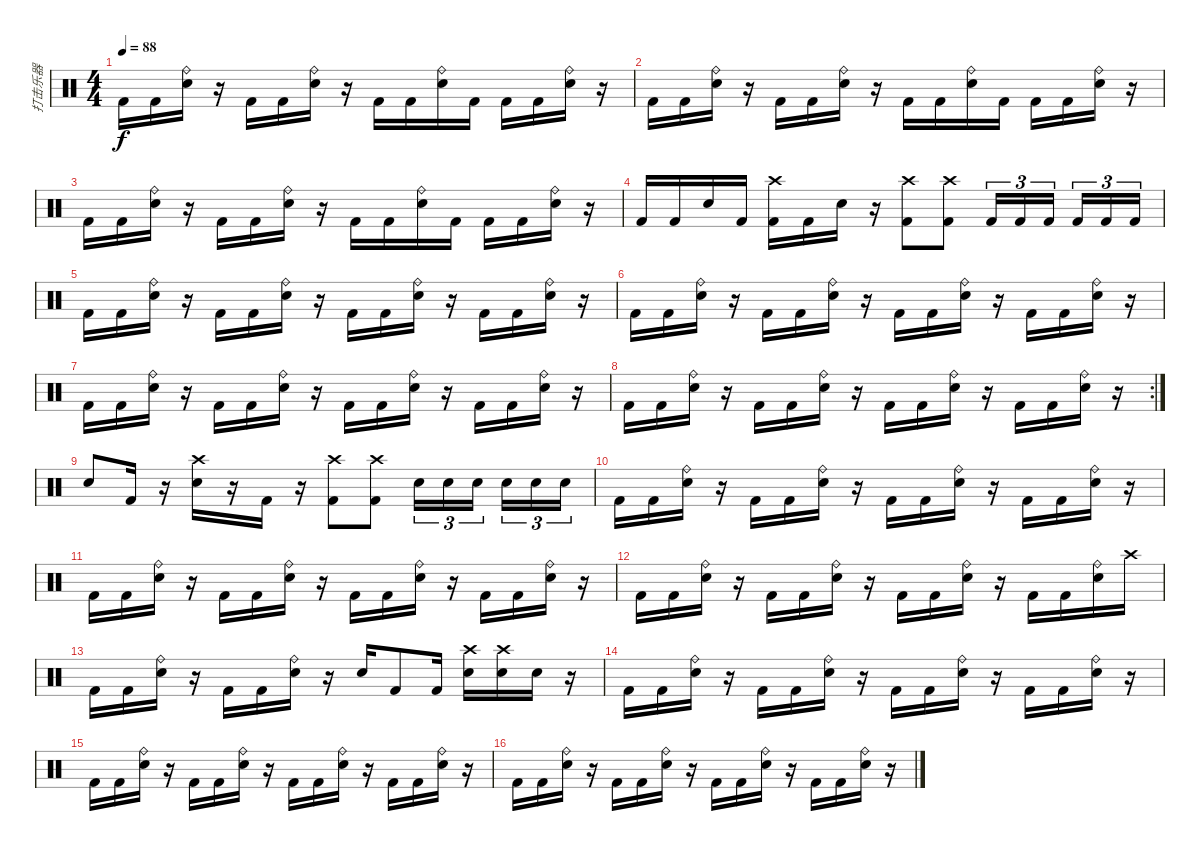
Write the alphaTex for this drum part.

\track ("打击乐器" "打击乐器") {instrument percussion}
\staff {score}
\articulation defaults
\ts (4 4)
\tempo 88
\clef neutral
\ks c "Kick (hit) 2".16{dy f} "Kick (hit) 2".16
("Ride (bell)" "Electric Snare (hit)").16 r.16 "Kick (hit) 2".16 "Kick (hit) 2".16 ("Ride (bell)" "Electric Snare (hit)").16 r.16 "Kick (hit) 2".16 "Kick (hit) 2".16 ("Ride (bell)" "Electric Snare (hit)").16 "Kick (hit) 2".16 "Kick (hit) 2".16 "Kick (hit) 2".16 ("Ride (bell)" "Electric Snare (hit)").16 r.16 |
"Kick (hit) 2".16 "Kick (hit) 2".16 ("Ride (bell)" "Electric Snare (hit)").16 r.16 "Kick (hit) 2".16 "Kick (hit) 2".16 ("Ride (bell)" "Electric Snare (hit)").16 r.16 "Kick (hit) 2".16 "Kick (hit) 2".16 ("Ride (bell)" "Electric Snare (hit)").16 "Kick (hit) 2".16 "Kick (hit) 2".16 "Kick (hit) 2".16 ("Ride (bell)" "Electric Snare (hit)").16 r.16 |
"Kick (hit) 2".16 "Kick (hit) 2".16 ("Ride (bell)" "Electric Snare (hit)").16 r.16 "Kick (hit) 2".16 "Kick (hit) 2".16 ("Ride (bell)" "Electric Snare (hit)").16 r.16 "Kick (hit) 2".16 "Kick (hit) 2".16 ("Ride (bell)" "Electric Snare (hit)").16 "Kick (hit) 2".16 "Kick (hit) 2".16 "Kick (hit) 2".16 ("Ride (bell)" "Electric Snare (hit)").16 r.16 |
"Kick (hit) 2".16 "Kick (hit) 2".16 "Electric Snare (hit)".16 "Kick (hit) 2".16 ("Kick (hit) 2" "Crash high (hit)").16 "Kick (hit) 2".16 "Electric Snare (hit)".16 r.16 ("Kick (hit) 2" "Crash high (hit)").8 ("Kick (hit) 2" "Crash high (hit)").8 "Kick (hit) 2".16{tu (3 2)} "Kick (hit) 2".16{tu (3 2)} "Kick (hit) 2".16{tu (3 2)} "Kick (hit) 2".16{tu (3 2)} "Kick (hit) 2".16{tu (3 2)} "Kick (hit) 2".16{tu (3 2)} |
"Kick (hit) 2".16 "Kick (hit) 2".16 ("Ride (bell)" "Electric Snare (hit)").16 r.16 "Kick (hit) 2".16 "Kick (hit) 2".16 ("Ride (bell)" "Electric Snare (hit)").16 r.16 "Kick (hit) 2".16 "Kick (hit) 2".16 ("Ride (bell)" "Electric Snare (hit)").16 r.16 "Kick (hit) 2".16 "Kick (hit) 2".16 ("Ride (bell)" "Electric Snare (hit)").16 r.16 |
"Kick (hit) 2".16 "Kick (hit) 2".16 ("Ride (bell)" "Electric Snare (hit)").16 r.16 "Kick (hit) 2".16 "Kick (hit) 2".16 ("Ride (bell)" "Electric Snare (hit)").16 r.16 "Kick (hit) 2".16 "Kick (hit) 2".16 ("Ride (bell)" "Electric Snare (hit)").16 r.16 "Kick (hit) 2".16 "Kick (hit) 2".16 ("Ride (bell)" "Electric Snare (hit)").16 r.16 |
"Kick (hit) 2".16 "Kick (hit) 2".16 ("Ride (bell)" "Electric Snare (hit)").16 r.16 "Kick (hit) 2".16 "Kick (hit) 2".16 ("Ride (bell)" "Electric Snare (hit)").16 r.16 "Kick (hit) 2".16 "Kick (hit) 2".16 ("Ride (bell)" "Electric Snare (hit)").16 r.16 "Kick (hit) 2".16 "Kick (hit) 2".16 ("Ride (bell)" "Electric Snare (hit)").16 r.16 |
\rc 2 "Kick (hit) 2".16 "Kick (hit) 2".16
("Ride (bell)" "Electric Snare (hit)").16 r.16 "Kick (hit) 2".16 "Kick (hit) 2".16 ("Ride (bell)" "Electric Snare (hit)").16 r.16 "Kick (hit) 2".16 "Kick (hit) 2".16 ("Ride (bell)" "Electric Snare (hit)").16 r.16 "Kick (hit) 2".16 "Kick (hit) 2".16 ("Ride (bell)" "Electric Snare (hit)").16 r.16 |
"Electric Snare (hit)".8 "Kick (hit) 2".16 r.16 ("Electric Snare (hit)" "Crash high (hit)").16 r.16 "Kick (hit) 2".16 r.16 ("Kick (hit) 2" "Crash high (hit)").8 ("Kick (hit) 2" "Crash high (hit)").8 "Electric Snare (hit)".16{tu (3 2)} "Electric Snare (hit)".16{tu (3 2)} "Electric Snare (hit)".16{tu (3 2)} "Electric Snare (hit)".16{tu (3 2)} "Electric Snare (hit)".16{tu (3 2)} "Electric Snare (hit)".16{tu (3 2)} |
"Kick (hit) 2".16 "Kick (hit) 2".16 ("Ride (bell)" "Electric Snare (hit)").16 r.16 "Kick (hit) 2".16 "Kick (hit) 2".16 ("Ride (bell)" "Electric Snare (hit)").16 r.16 "Kick (hit) 2".16 "Kick (hit) 2".16 ("Ride (bell)" "Electric Snare (hit)").16 r.16 "Kick (hit) 2".16 "Kick (hit) 2".16 ("Ride (bell)" "Electric Snare (hit)").16 r.16 |
"Kick (hit) 2".16 "Kick (hit) 2".16 ("Ride (bell)" "Electric Snare (hit)").16 r.16 "Kick (hit) 2".16 "Kick (hit) 2".16 ("Ride (bell)" "Electric Snare (hit)").16 r.16 "Kick (hit) 2".16 "Kick (hit) 2".16 ("Ride (bell)" "Electric Snare (hit)").16 r.16 "Kick (hit) 2".16 "Kick (hit) 2".16 ("Ride (bell)" "Electric Snare (hit)").16 r.16 |
"Kick (hit) 2".16 "Kick (hit) 2".16 ("Ride (bell)" "Electric Snare (hit)").16 r.16 "Kick (hit) 2".16 "Kick (hit) 2".16 ("Ride (bell)" "Electric Snare (hit)").16 r.16 "Kick (hit) 2".16 "Kick (hit) 2".16 ("Ride (bell)" "Electric Snare (hit)").16 r.16 "Kick (hit) 2".16 "Kick (hit) 2".16 ("Ride (bell)" "Electric Snare (hit)").16 "Crash high (hit)".16 |
"Kick (hit) 2".16 "Kick (hit) 2".16 ("Ride (bell)" "Electric Snare (hit)").16 r.16 "Kick (hit) 2".16 "Kick (hit) 2".16 ("Ride (bell)" "Electric Snare (hit)").16 r.16 "Electric Snare (hit)".16 "Kick (hit) 2".8 "Kick (hit) 2".16 ("Crash high (hit)" "Electric Snare (hit)").16 ("Crash high (hit)" "Electric Snare (hit)").16 "Electric Snare (hit)".16 r.16 |
"Kick (hit) 2".16 "Kick (hit) 2".16 ("Ride (bell)" "Electric Snare (hit)").16 r.16 "Kick (hit) 2".16 "Kick (hit) 2".16 ("Ride (bell)" "Electric Snare (hit)").16 r.16 "Kick (hit) 2".16 "Kick (hit) 2".16 ("Ride (bell)" "Electric Snare (hit)").16 r.16 "Kick (hit) 2".16 "Kick (hit) 2".16 ("Ride (bell)" "Electric Snare (hit)").16 r.16 |
"Kick (hit) 2".16 "Kick (hit) 2".16 ("Ride (bell)" "Electric Snare (hit)").16 r.16 "Kick (hit) 2".16 "Kick (hit) 2".16 ("Ride (bell)" "Electric Snare (hit)").16 r.16 "Kick (hit) 2".16 "Kick (hit) 2".16 ("Ride (bell)" "Electric Snare (hit)").16 r.16 "Kick (hit) 2".16 "Kick (hit) 2".16 ("Ride (bell)" "Electric Snare (hit)").16 r.16 |
"Kick (hit) 2".16 "Kick (hit) 2".16 ("Ride (bell)" "Electric Snare (hit)").16 r.16 "Kick (hit) 2".16 "Kick (hit) 2".16 ("Ride (bell)" "Electric Snare (hit)").16 r.16 "Kick (hit) 2".16 "Kick (hit) 2".16 ("Ride (bell)" "Electric Snare (hit)").16 r.16 "Kick (hit) 2".16 "Kick (hit) 2".16 ("Ride (bell)" "Electric Snare (hit)").16 r.16
